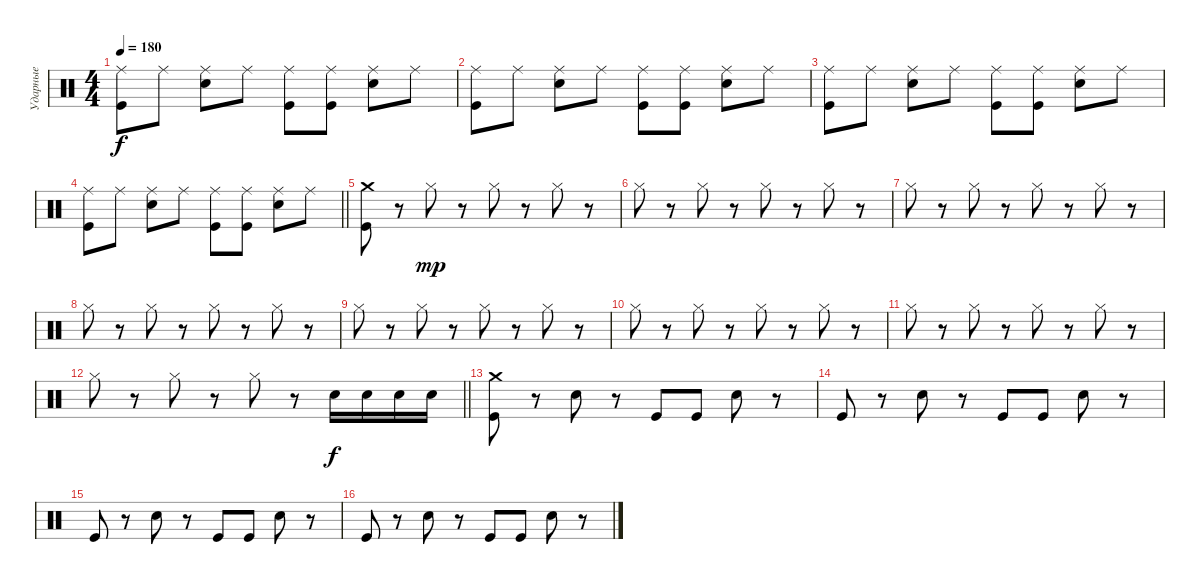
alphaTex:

\track ("Ударные" "Ударные") {instrument percussion}
\staff {score}
\articulation defaults
\ts (4 4)
\tempo 180
\clef neutral
\ks c
("Ride (middle)" "Kick (hit)").8{dy f} "Ride (middle)".8 ("Ride (middle)" "Electric Snare (hit)").8 "Ride (middle)".8 ("Ride (middle)" "Kick (hit)").8 ("Ride (middle)" "Kick (hit)").8 ("Ride (middle)" "Electric Snare (hit)").8 "Ride (middle)".8 |
("Ride (middle)" "Kick (hit)").8 "Ride (middle)".8 ("Ride (middle)" "Electric Snare (hit)").8 "Ride (middle)".8 ("Ride (middle)" "Kick (hit)").8 ("Ride (middle)" "Kick (hit)").8 ("Ride (middle)" "Electric Snare (hit)").8 "Ride (middle)".8 |
("Ride (middle)" "Kick (hit)").8 "Ride (middle)".8 ("Ride (middle)" "Electric Snare (hit)").8 "Ride (middle)".8 ("Ride (middle)" "Kick (hit)").8 ("Ride (middle)" "Kick (hit)").8 ("Ride (middle)" "Electric Snare (hit)").8 "Ride (middle)".8 |
\barLineRight lightlight
("Ride (middle)" "Kick (hit)").8 "Ride (middle)".8 ("Ride (middle)" "Electric Snare (hit)").8 "Ride (middle)".8 ("Ride (middle)" "Kick (hit)").8 ("Ride (middle)" "Kick (hit)").8 ("Ride (middle)" "Electric Snare (hit)").8 "Ride (middle)".8 |
("Crash medium (hit)" "Kick (hit)").8 r.8 "Hi-Hat (closed)".8{dy mp} r.8 "Hi-Hat (closed)".8 r.8 "Hi-Hat (closed)".8 r.8 |
"Hi-Hat (closed)".8 r.8 "Hi-Hat (closed)".8 r.8 "Hi-Hat (closed)".8 r.8 "Hi-Hat (closed)".8 r.8 |
"Hi-Hat (closed)".8 r.8 "Hi-Hat (closed)".8 r.8 "Hi-Hat (closed)".8 r.8 "Hi-Hat (closed)".8 r.8 |
"Hi-Hat (closed)".8 r.8 "Hi-Hat (closed)".8 r.8 "Hi-Hat (closed)".8 r.8 "Hi-Hat (closed)".8 r.8 |
"Hi-Hat (closed)".8 r.8 "Hi-Hat (closed)".8 r.8 "Hi-Hat (closed)".8 r.8 "Hi-Hat (closed)".8 r.8 |
"Hi-Hat (closed)".8 r.8 "Hi-Hat (closed)".8 r.8 "Hi-Hat (closed)".8 r.8 "Hi-Hat (closed)".8 r.8 |
"Hi-Hat (closed)".8 r.8 "Hi-Hat (closed)".8 r.8 "Hi-Hat (closed)".8 r.8 "Hi-Hat (closed)".8 r.8 |
\barLineRight lightlight "Hi-Hat (closed)".8
r.8 "Hi-Hat (closed)".8 r.8 "Hi-Hat (closed)".8 r.8 "Electric Snare (hit)".16{dy f} "Electric Snare (hit)".16 "Electric Snare (hit)".16 "Electric Snare (hit)".16 |
("Crash medium (hit)" "Kick (hit)").8 r.8 "Electric Snare (hit)".8 r.8 "Kick (hit)".8 "Kick (hit)".8 "Electric Snare (hit)".8 r.8 |
"Kick (hit)".8 r.8 "Electric Snare (hit)".8 r.8 "Kick (hit)".8 "Kick (hit)".8 "Electric Snare (hit)".8 r.8 |
"Kick (hit)".8 r.8 "Electric Snare (hit)".8 r.8 "Kick (hit)".8 "Kick (hit)".8 "Electric Snare (hit)".8 r.8 |
"Kick (hit)".8 r.8 "Electric Snare (hit)".8 r.8 "Kick (hit)".8 "Kick (hit)".8 "Electric Snare (hit)".8 r.8
